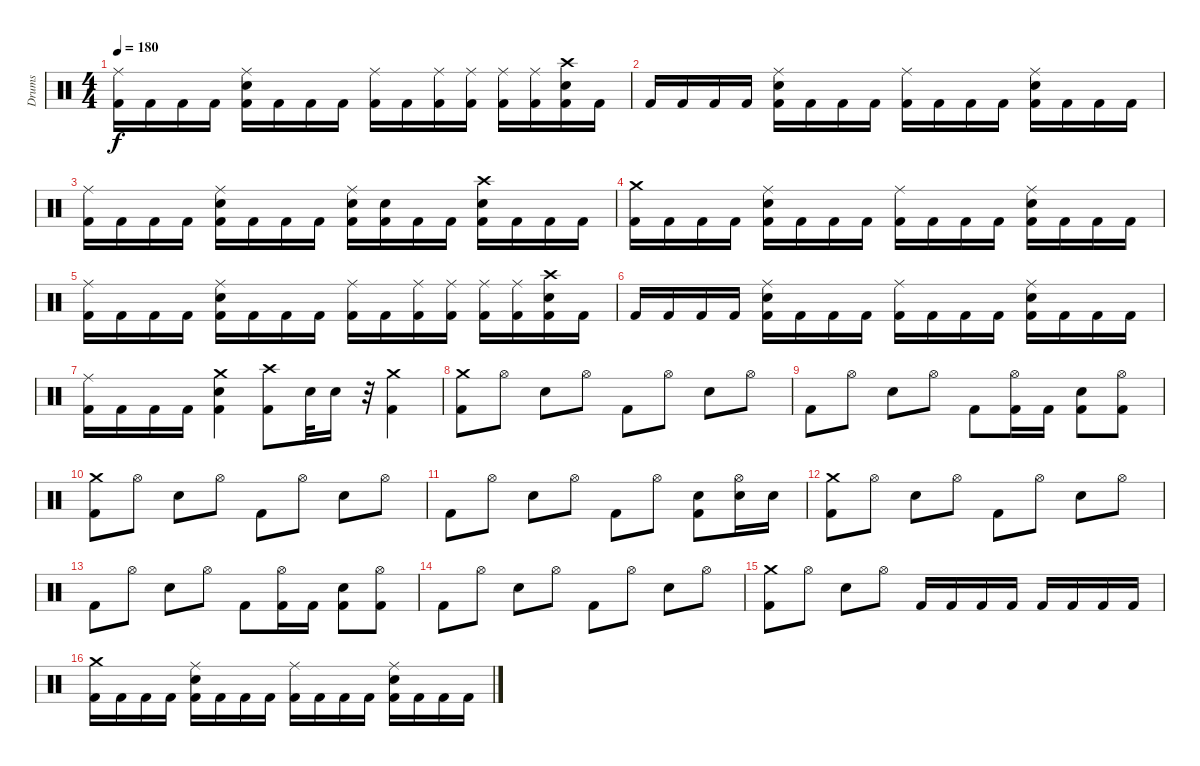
\track ("Drums" "Drums") {instrument percussion}
\staff {score}
\articulation defaults
\ts (4 4)
\tempo 180
\clef neutral
\ks c
("Ride (middle)" "Kick (hit) 2").16{dy f} "Kick (hit) 2".16 "Kick (hit) 2".16 "Kick (hit) 2".16 ("Ride (middle)" "Electric Snare (hit)" "Kick (hit) 2").16 "Kick (hit) 2".16 "Kick (hit) 2".16 "Kick (hit) 2".16 ("Ride (middle)" "Kick (hit) 2").16 "Kick (hit) 2".16 ("Ride (middle)" "Kick (hit) 2").16 ("Ride (middle)" "Kick (hit) 2").16 ("Ride (middle)" "Kick (hit) 2").16 ("Ride (middle)" "Kick (hit) 2").16 ("Crash high (hit)" "Electric Snare (hit)" "Kick (hit) 2").16 "Kick (hit) 2".16 |
"Kick (hit) 2".16 "Kick (hit) 2".16 "Kick (hit) 2".16 "Kick (hit) 2".16 ("Ride (middle)" "Electric Snare (hit)" "Kick (hit) 2").16 "Kick (hit) 2".16 "Kick (hit) 2".16 "Kick (hit) 2".16 ("Ride (middle)" "Kick (hit) 2").16 "Kick (hit) 2".16 "Kick (hit) 2".16 "Kick (hit) 2".16 ("Ride (middle)" "Electric Snare (hit)" "Kick (hit) 2").16 "Kick (hit) 2".16 "Kick (hit) 2".16 "Kick (hit) 2".16 |
("Ride (middle)" "Kick (hit) 2").16 "Kick (hit) 2".16 "Kick (hit) 2".16 "Kick (hit) 2".16 ("Ride (middle)" "Electric Snare (hit)" "Kick (hit) 2").16 "Kick (hit) 2".16 "Kick (hit) 2".16 "Kick (hit) 2".16 ("Ride (middle)" "Electric Snare (hit)" "Kick (hit) 2").16 ("Electric Snare (hit)" "Kick (hit) 2").16 "Kick (hit) 2".16 "Kick (hit) 2".16 ("Crash high (hit)" "Electric Snare (hit)" "Kick (hit) 2").16 "Kick (hit) 2".16 "Kick (hit) 2".16 "Kick (hit) 2".16 |
("Crash medium (hit)" "Kick (hit) 2").16 "Kick (hit) 2".16 "Kick (hit) 2".16 "Kick (hit) 2".16 ("Ride (middle)" "Electric Snare (hit)" "Kick (hit) 2").16 "Kick (hit) 2".16 "Kick (hit) 2".16 "Kick (hit) 2".16 ("Ride (middle)" "Kick (hit) 2").16 "Kick (hit) 2".16 "Kick (hit) 2".16 "Kick (hit) 2".16 ("Ride (middle)" "Electric Snare (hit)" "Kick (hit) 2").16 "Kick (hit) 2".16 "Kick (hit) 2".16 "Kick (hit) 2".16 |
("Ride (middle)" "Kick (hit) 2").16 "Kick (hit) 2".16 "Kick (hit) 2".16 "Kick (hit) 2".16 ("Ride (middle)" "Electric Snare (hit)" "Kick (hit) 2").16 "Kick (hit) 2".16 "Kick (hit) 2".16 "Kick (hit) 2".16 ("Ride (middle)" "Kick (hit) 2").16 "Kick (hit) 2".16 ("Ride (middle)" "Kick (hit) 2").16 ("Ride (middle)" "Kick (hit) 2").16 ("Ride (middle)" "Kick (hit) 2").16 ("Ride (middle)" "Kick (hit) 2").16 ("Crash high (hit)" "Electric Snare (hit)" "Kick (hit) 2").16 "Kick (hit) 2".16 |
"Kick (hit) 2".16 "Kick (hit) 2".16 "Kick (hit) 2".16 "Kick (hit) 2".16 ("Ride (middle)" "Electric Snare (hit)" "Kick (hit) 2").16 "Kick (hit) 2".16 "Kick (hit) 2".16 "Kick (hit) 2".16 ("Ride (middle)" "Kick (hit) 2").16 "Kick (hit) 2".16 "Kick (hit) 2".16 "Kick (hit) 2".16 ("Ride (middle)" "Electric Snare (hit)" "Kick (hit) 2").16 "Kick (hit) 2".16 "Kick (hit) 2".16 "Kick (hit) 2".16 |
("Ride (middle)" "Kick (hit) 2").16 "Kick (hit) 2".16 "Kick (hit) 2".16 "Kick (hit) 2".16 ("Crash medium (hit)" "Electric Snare (hit)" "Kick (hit) 2").4 ("Crash high (hit)" "Kick (hit) 2").8 "Electric Snare (hit)".32 "Electric Snare (hit)".16 r.32 ("Crash medium (hit)" "Kick (hit) 2").4 |
("Crash medium (hit)" "Kick (hit) 2").8 "Hi-Hat (open)".8 "Electric Snare (hit)".8 "Hi-Hat (open)".8 "Kick (hit) 2".8 "Hi-Hat (open)".8 "Electric Snare (hit)".8 "Hi-Hat (open)".8 |
"Kick (hit) 2".8 "Hi-Hat (open)".8 "Electric Snare (hit)".8 "Hi-Hat (open)".8 "Kick (hit) 2".8 ("Hi-Hat (open)" "Kick (hit) 2").16 "Kick (hit) 2".16 ("Electric Snare (hit)" "Kick (hit) 2").8 ("Hi-Hat (open)" "Kick (hit) 2").8 |
("Crash medium (hit)" "Kick (hit) 2").8 "Hi-Hat (open)".8 "Electric Snare (hit)".8 "Hi-Hat (open)".8 "Kick (hit) 2".8 "Hi-Hat (open)".8 "Electric Snare (hit)".8 "Hi-Hat (open)".8 |
"Kick (hit) 2".8 "Hi-Hat (open)".8 "Electric Snare (hit)".8 "Hi-Hat (open)".8 "Kick (hit) 2".8 "Hi-Hat (open)".8 ("Electric Snare (hit)" "Kick (hit) 2").8 ("Hi-Hat (open)" "Electric Snare (hit)").16 "Electric Snare (hit)".16 |
("Crash medium (hit)" "Kick (hit) 2").8 "Hi-Hat (open)".8 "Electric Snare (hit)".8 "Hi-Hat (open)".8 "Kick (hit) 2".8 "Hi-Hat (open)".8 "Electric Snare (hit)".8 "Hi-Hat (open)".8 |
"Kick (hit) 2".8 "Hi-Hat (open)".8 "Electric Snare (hit)".8 "Hi-Hat (open)".8 "Kick (hit) 2".8 ("Hi-Hat (open)" "Kick (hit) 2").16 "Kick (hit) 2".16 ("Electric Snare (hit)" "Kick (hit) 2").8 ("Hi-Hat (open)" "Kick (hit) 2").8 |
"Kick (hit) 2".8 "Hi-Hat (open)".8 "Electric Snare (hit)".8 "Hi-Hat (open)".8 "Kick (hit) 2".8 "Hi-Hat (open)".8 "Electric Snare (hit)".8 "Hi-Hat (open)".8 |
("Crash medium (hit)" "Kick (hit) 2").8 "Hi-Hat (open)".8 "Electric Snare (hit)".8 "Hi-Hat (open)".8 "Kick (hit) 2".16 "Kick (hit) 2".16 "Kick (hit) 2".16 "Kick (hit) 2".16 "Kick (hit) 2".16 "Kick (hit) 2".16 "Kick (hit) 2".16 "Kick (hit) 2".16 |
("Crash medium (hit)" "Kick (hit) 2").16 "Kick (hit) 2".16 "Kick (hit) 2".16 "Kick (hit) 2".16 ("Ride (middle)" "Electric Snare (hit)" "Kick (hit) 2").16 "Kick (hit) 2".16 "Kick (hit) 2".16 "Kick (hit) 2".16 ("Ride (middle)" "Kick (hit) 2").16 "Kick (hit) 2".16 "Kick (hit) 2".16 "Kick (hit) 2".16 ("Ride (middle)" "Electric Snare (hit)" "Kick (hit) 2").16 "Kick (hit) 2".16 "Kick (hit) 2".16 "Kick (hit) 2".16
